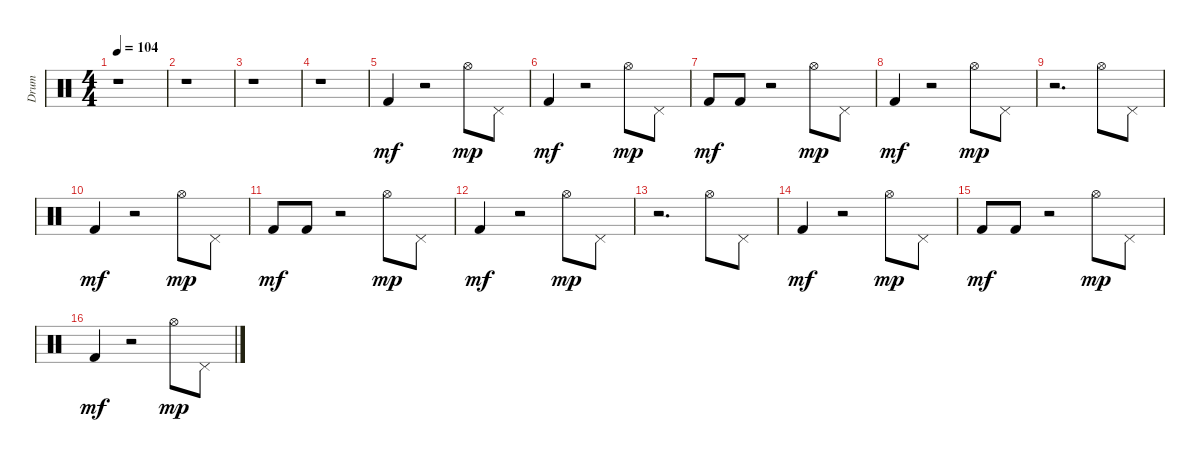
\track ("Drum" "Drum") {instrument percussion}
\staff {score}
\articulation defaults
\ts (4 4)
\tempo 104
\clef neutral
\ks c
r.1{dy mf} |
r.1 |
r.1 |
r.1 |
"Kick (hit) 2".4 r.2 "Hi-Hat (open)".8{dy mp} "Pedal Hi-Hat (hit)".8 |
"Kick (hit) 2".4{dy mf} r.2 "Hi-Hat (open)".8{dy mp} "Pedal Hi-Hat (hit)".8 |
"Kick (hit) 2".8{dy mf} "Kick (hit) 2".8 r.2 "Hi-Hat (open)".8{dy mp} "Pedal Hi-Hat (hit)".8 |
"Kick (hit) 2".4{dy mf} r.2 "Hi-Hat (open)".8{dy mp} "Pedal Hi-Hat (hit)".8 |
r.2{d} "Hi-Hat (open)".8 "Pedal Hi-Hat (hit)".8 |
"Kick (hit) 2".4{dy mf} r.2 "Hi-Hat (open)".8{dy mp} "Pedal Hi-Hat (hit)".8 |
"Kick (hit) 2".8{dy mf} "Kick (hit) 2".8 r.2 "Hi-Hat (open)".8{dy mp} "Pedal Hi-Hat (hit)".8 |
"Kick (hit) 2".4{dy mf} r.2 "Hi-Hat (open)".8{dy mp} "Pedal Hi-Hat (hit)".8 |
r.2{d} "Hi-Hat (open)".8 "Pedal Hi-Hat (hit)".8 |
"Kick (hit) 2".4{dy mf} r.2 "Hi-Hat (open)".8{dy mp} "Pedal Hi-Hat (hit)".8 |
"Kick (hit) 2".8{dy mf} "Kick (hit) 2".8 r.2 "Hi-Hat (open)".8{dy mp} "Pedal Hi-Hat (hit)".8 |
"Kick (hit) 2".4{dy mf} r.2 "Hi-Hat (open)".8{dy mp} "Pedal Hi-Hat (hit)".8
